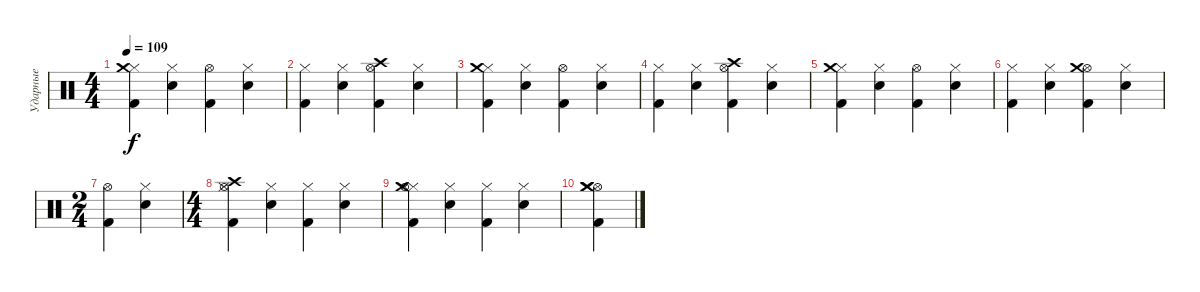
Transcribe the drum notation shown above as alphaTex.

\track ("Ударные" "Ударные") {instrument percussion}
\staff {score}
\articulation defaults
\ts (4 4)
\tempo 109
\clef neutral
\ks c
("Hi-Hat (closed)" "Kick (hit) 2" "Crash medium (hit)").4{dy f} ("Hi-Hat (closed)" "Snare (hit) 2").4 ("Hi-Hat (open)" "Kick (hit) 2").4 ("Hi-Hat (closed)" "Snare (hit) 2").4 |
("Hi-Hat (closed)" "Kick (hit) 2").4 ("Hi-Hat (closed)" "Snare (hit) 2").4 ("Hi-Hat (open)" "Crash high (hit)" "Kick (hit) 2").4 ("Hi-Hat (closed)" "Snare (hit) 2").4 |
("Hi-Hat (closed)" "Kick (hit) 2" "Crash medium (hit)").4 ("Hi-Hat (closed)" "Snare (hit) 2").4 ("Hi-Hat (open)" "Kick (hit) 2").4 ("Hi-Hat (closed)" "Snare (hit) 2").4 |
("Hi-Hat (closed)" "Kick (hit) 2").4 ("Hi-Hat (closed)" "Snare (hit) 2").4 ("Hi-Hat (open)" "Crash high (hit)" "Kick (hit) 2").4 ("Hi-Hat (closed)" "Snare (hit) 2").4 |
("Hi-Hat (closed)" "Kick (hit) 2" "Crash medium (hit)").4 ("Hi-Hat (closed)" "Snare (hit) 2").4 ("Hi-Hat (open)" "Kick (hit) 2").4 ("Hi-Hat (closed)" "Snare (hit) 2").4 |
("Hi-Hat (closed)" "Kick (hit) 2").4 ("Hi-Hat (closed)" "Snare (hit) 2").4 ("Hi-Hat (open)" "Crash medium (hit)" "Kick (hit) 2").4 ("Hi-Hat (closed)" "Snare (hit) 2").4 |
\ts (2 4)
("Hi-Hat (open)" "Kick (hit) 2").4 ("Hi-Hat (closed)" "Snare (hit) 2").4 |
\ts (4 4)
("Hi-Hat (closed)" "Hi-Hat (open)" "Kick (hit) 2" "Crash high (hit)").4 ("Hi-Hat (closed)" "Snare (hit) 2").4 ("Hi-Hat (closed)" "Kick (hit) 2").4 ("Hi-Hat (closed)" "Snare (hit) 2").4 |
("Hi-Hat (closed)" "Hi-Hat (open)" "Kick (hit) 2" "Crash medium (hit)").4 ("Hi-Hat (closed)" "Snare (hit) 2").4 ("Hi-Hat (closed)" "Kick (hit) 2").4 ("Hi-Hat (closed)" "Snare (hit) 2").4 |
("Hi-Hat (open)" "Kick (hit) 2" "Crash medium (hit)" "Crash medium (hit)").4
